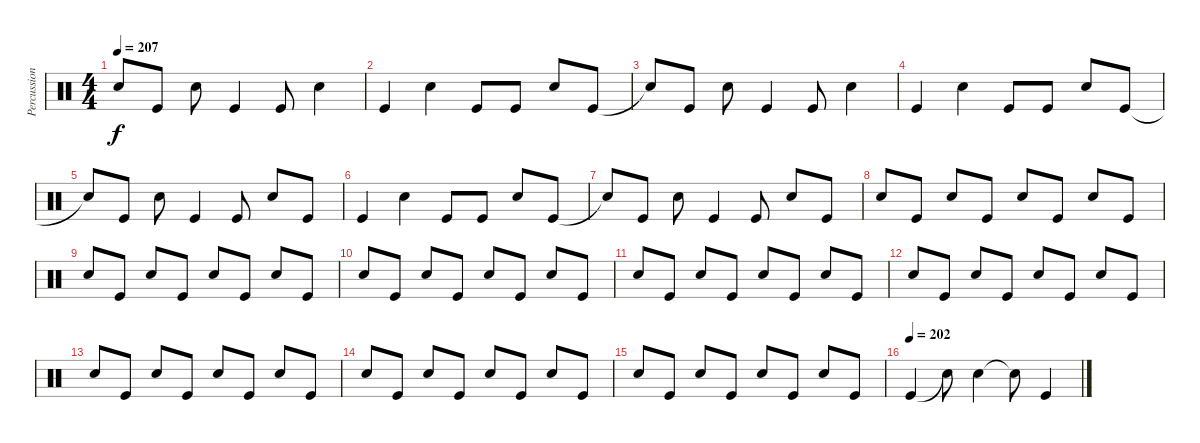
\track ("Percussion" "Percussion") {instrument percussion}
\staff {score}
\articulation defaults
\ts (4 4)
\tempo 207
\clef neutral
\ks c "Snare (hit)"{t}.8{dy f} "Kick (hit)".8 "Electric Snare (hit)".8 "Kick (hit)".4 "Kick (hit)".8 "Electric Snare (hit)".4
|
"Kick (hit)".4 "Electric Snare (hit)".4 "Kick (hit)".8 "Kick (hit)".8 "Electric Snare (hit)".8 "Kick (hit)".8 |
"Snare (hit)"{t}.8 "Kick (hit)".8 "Electric Snare (hit)".8 "Kick (hit)".4 "Kick (hit)".8 "Electric Snare (hit)".4 |
"Kick (hit)".4 "Electric Snare (hit)".4 "Kick (hit)".8 "Kick (hit)".8 "Electric Snare (hit)".8 "Kick (hit)".8 |
"Snare (hit)"{t}.8 "Kick (hit)".8 "Electric Snare (hit)".8 "Kick (hit)".4 "Kick (hit)".8 "Electric Snare (hit)".8 "Kick (hit)".8 |
"Kick (hit)".4 "Electric Snare (hit)".4 "Kick (hit)".8 "Kick (hit)".8 "Electric Snare (hit)".8 "Kick (hit)".8 |
"Snare (hit)"{t}.8 "Kick (hit)".8 "Electric Snare (hit)".8 "Kick (hit)".4 "Kick (hit)".8 "Electric Snare (hit)".8 "Kick (hit)".8 |
"Electric Snare (hit)".8 "Kick (hit)".8 "Electric Snare (hit)".8 "Kick (hit)".8 "Electric Snare (hit)".8 "Kick (hit)".8 "Electric Snare (hit)".8 "Kick (hit)".8 |
"Electric Snare (hit)".8 "Kick (hit)".8 "Electric Snare (hit)".8 "Kick (hit)".8 "Electric Snare (hit)".8 "Kick (hit)".8 "Electric Snare (hit)".8 "Kick (hit)".8 |
"Electric Snare (hit)".8 "Kick (hit)".8 "Electric Snare (hit)".8 "Kick (hit)".8 "Electric Snare (hit)".8 "Kick (hit)".8 "Electric Snare (hit)".8 "Kick (hit)".8 |
"Electric Snare (hit)".8 "Kick (hit)".8 "Electric Snare (hit)".8 "Kick (hit)".8 "Electric Snare (hit)".8 "Kick (hit)".8 "Electric Snare (hit)".8 "Kick (hit)".8 |
"Electric Snare (hit)".8 "Kick (hit)".8 "Electric Snare (hit)".8 "Kick (hit)".8 "Electric Snare (hit)".8 "Kick (hit)".8 "Electric Snare (hit)".8 "Kick (hit)".8 |
"Electric Snare (hit)".8 "Kick (hit)".8 "Electric Snare (hit)".8 "Kick (hit)".8 "Electric Snare (hit)".8 "Kick (hit)".8 "Electric Snare (hit)".8 "Kick (hit)".8 |
"Electric Snare (hit)".8 "Kick (hit)".8 "Electric Snare (hit)".8 "Kick (hit)".8 "Electric Snare (hit)".8 "Kick (hit)".8 "Electric Snare (hit)".8 "Kick (hit)".8 |
"Electric Snare (hit)".8 "Kick (hit)".8 "Electric Snare (hit)".8 "Kick (hit)".8 "Electric Snare (hit)".8 "Kick (hit)".8 "Electric Snare (hit)".8 "Kick (hit)".8 |
\tempo (202)
"Kick (hit)".4 "Snare (hit)"{t}.8 "Electric Snare (hit)".4 "Snare (hit)"{t}.8 "Kick (hit)".4
